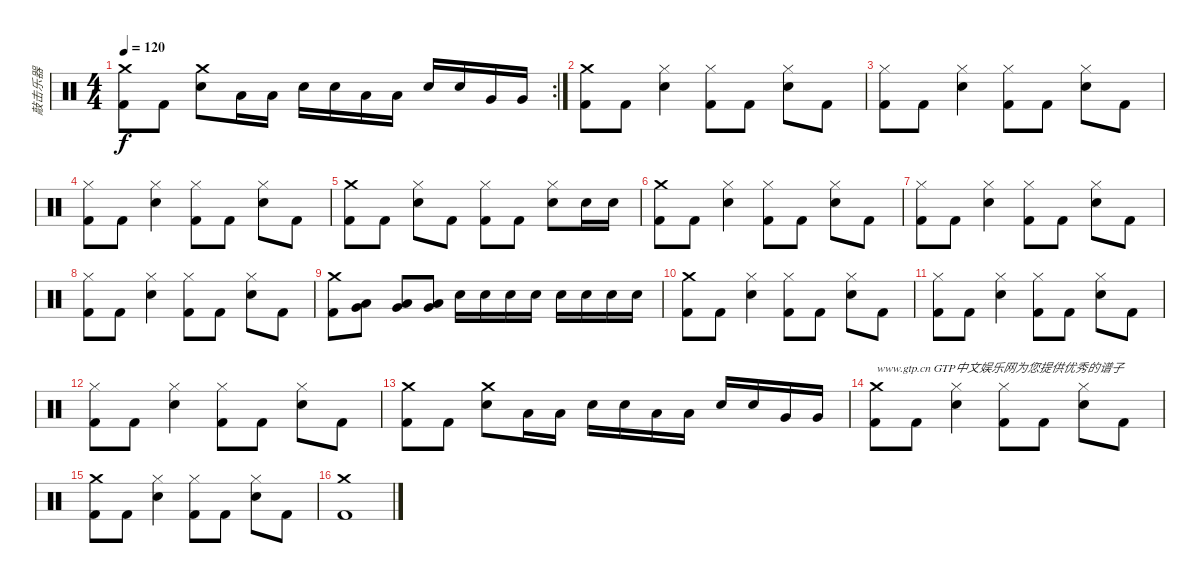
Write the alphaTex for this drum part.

\track ("敲击乐器" "敲击乐器") {instrument percussion}
\staff {score}
\articulation defaults
\rc 2
\ts (4 4)
\tempo 120
\clef neutral
\ks c
("Crash medium (hit)" "Kick (hit) 2").8{dy f} "Kick (hit) 2".8 ("Crash medium (hit)" "Electric Snare (hit)").8 "Low Tom (hit)".16 "Low Tom (hit)".16 "Electric Snare (hit)".16 "Electric Snare (hit)".16 "Low Tom (hit)".16 "Low Tom (hit)".16 "Electric Snare (hit)".16 "Electric Snare (hit)".16 "Very Low Tom (hit)".16 "Very Low Tom (hit)".16 |
("Crash medium (hit)" "Kick (hit) 2").8 "Kick (hit) 2".8 ("Hi-Hat (closed)" "Electric Snare (hit)").4 ("Hi-Hat (closed)" "Kick (hit) 2").8 "Kick (hit) 2".8 ("Hi-Hat (closed)" "Electric Snare (hit)").8 "Kick (hit) 2".8 |
("Hi-Hat (closed)" "Kick (hit) 2").8 "Kick (hit) 2".8 ("Hi-Hat (closed)" "Electric Snare (hit)").4 ("Hi-Hat (closed)" "Kick (hit) 2").8 "Kick (hit) 2".8 ("Hi-Hat (closed)" "Electric Snare (hit)").8 "Kick (hit) 2".8 |
("Hi-Hat (closed)" "Kick (hit) 2").8 "Kick (hit) 2".8 ("Hi-Hat (closed)" "Electric Snare (hit)").4 ("Hi-Hat (closed)" "Kick (hit) 2").8 "Kick (hit) 2".8 ("Hi-Hat (closed)" "Electric Snare (hit)").8 "Kick (hit) 2".8 |
("Crash medium (hit)" "Kick (hit) 2").8 "Kick (hit) 2".8 ("Hi-Hat (closed)" "Electric Snare (hit)").8 "Kick (hit) 2".8 ("Hi-Hat (closed)" "Kick (hit) 2").8 "Kick (hit) 2".8 ("Hi-Hat (closed)" "Electric Snare (hit)").8 "Electric Snare (hit)".16 "Electric Snare (hit)".16 |
("Crash medium (hit)" "Kick (hit) 2").8 "Kick (hit) 2".8 ("Hi-Hat (closed)" "Electric Snare (hit)").4 ("Hi-Hat (closed)" "Kick (hit) 2").8 "Kick (hit) 2".8 ("Hi-Hat (closed)" "Electric Snare (hit)").8 "Kick (hit) 2".8 |
("Hi-Hat (closed)" "Kick (hit) 2").8 "Kick (hit) 2".8 ("Hi-Hat (closed)" "Electric Snare (hit)").4 ("Hi-Hat (closed)" "Kick (hit) 2").8 "Kick (hit) 2".8 ("Hi-Hat (closed)" "Electric Snare (hit)").8 "Kick (hit) 2".8 |
("Hi-Hat (closed)" "Kick (hit) 2").8 "Kick (hit) 2".8 ("Hi-Hat (closed)" "Electric Snare (hit)").4 ("Hi-Hat (closed)" "Kick (hit) 2").8 "Kick (hit) 2".8 ("Hi-Hat (closed)" "Electric Snare (hit)").8 "Kick (hit) 2".8 |
("Crash medium (hit)" "Kick (hit) 2").8 ("Low Tom (hit)" "Very Low Tom (hit)").8 ("Low Tom (hit)" "Very Low Tom (hit)").8 ("Low Tom (hit)" "Very Low Tom (hit)").8 "Electric Snare (hit)".16 "Electric Snare (hit)".16 "Electric Snare (hit)".16 "Electric Snare (hit)".16 "Electric Snare (hit)".16 "Electric Snare (hit)".16 "Electric Snare (hit)".16 "Electric Snare (hit)".16 |
("Crash medium (hit)" "Kick (hit) 2").8 "Kick (hit) 2".8 ("Hi-Hat (closed)" "Electric Snare (hit)").4 ("Hi-Hat (closed)" "Kick (hit) 2").8 "Kick (hit) 2".8 ("Hi-Hat (closed)" "Electric Snare (hit)").8 "Kick (hit) 2".8 |
("Hi-Hat (closed)" "Kick (hit) 2").8 "Kick (hit) 2".8 ("Hi-Hat (closed)" "Electric Snare (hit)").4 ("Hi-Hat (closed)" "Kick (hit) 2").8 "Kick (hit) 2".8 ("Hi-Hat (closed)" "Electric Snare (hit)").8 "Kick (hit) 2".8 |
("Hi-Hat (closed)" "Kick (hit) 2").8 "Kick (hit) 2".8 ("Hi-Hat (closed)" "Electric Snare (hit)").4 ("Hi-Hat (closed)" "Kick (hit) 2").8 "Kick (hit) 2".8 ("Hi-Hat (closed)" "Electric Snare (hit)").8 "Kick (hit) 2".8 |
("Crash medium (hit)" "Kick (hit) 2").8 "Kick (hit) 2".8 ("Crash medium (hit)" "Electric Snare (hit)").8 "Low Tom (hit)".16 "Low Tom (hit)".16 "Electric Snare (hit)".16 "Electric Snare (hit)".16 "Low Tom (hit)".16 "Low Tom (hit)".16 "Electric Snare (hit)".16 "Electric Snare (hit)".16 "Very Low Tom (hit)".16 "Very Low Tom (hit)".16 |
("Crash medium (hit)" "Kick (hit) 2").8{txt "www.gtp.cn GTP中文娱乐网为您提供优秀的谱子"} "Kick (hit) 2".8 ("Hi-Hat (closed)" "Electric Snare (hit)").4 ("Hi-Hat (closed)" "Kick (hit) 2").8 "Kick (hit) 2".8 ("Hi-Hat (closed)" "Electric Snare (hit)").8 "Kick (hit) 2".8 |
("Crash medium (hit)" "Kick (hit) 2").8 "Kick (hit) 2".8 ("Hi-Hat (closed)" "Electric Snare (hit)").4 ("Hi-Hat (closed)" "Kick (hit) 2").8 "Kick (hit) 2".8 ("Hi-Hat (closed)" "Electric Snare (hit)").8 "Kick (hit) 2".8 |
("Crash medium (hit)" "Kick (hit) 2").1
